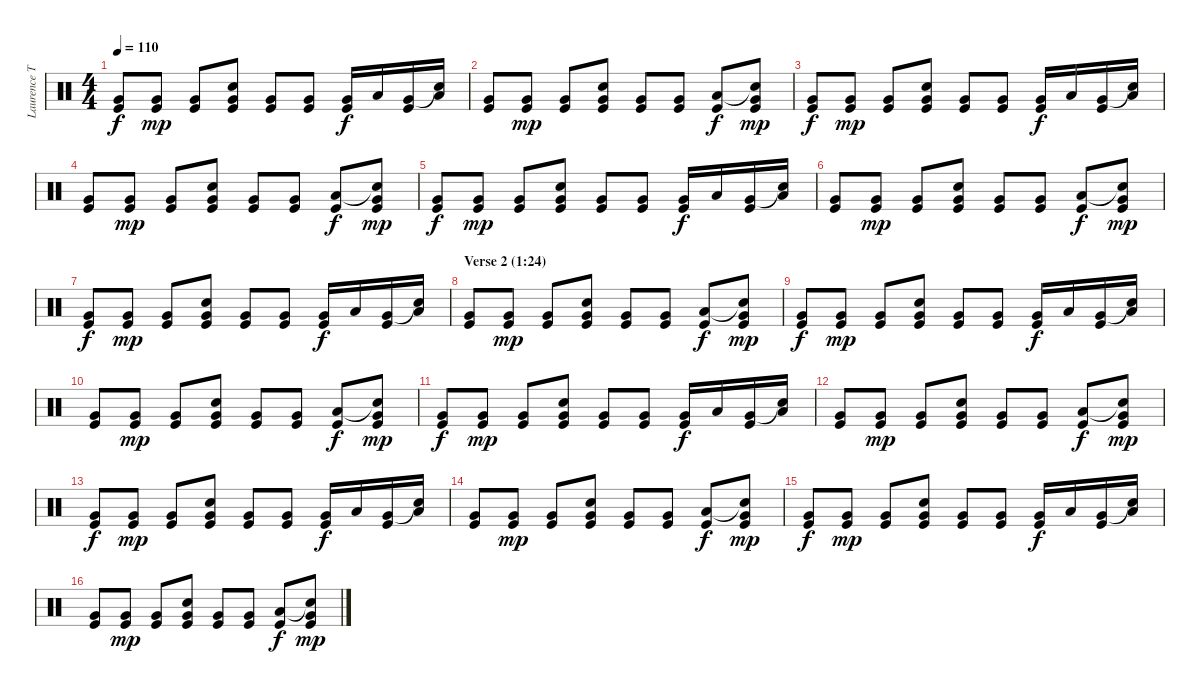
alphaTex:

\track ("Laurence Tolhurst (drums)" "Laurence T") {instrument percussion}
\staff {score}
\articulation defaults
\ts (4 4)
\tempo 110
\clef neutral
\ks c
("Very Low Tom (hit)" "Kick (hit)").8{dy f} ("Very Low Tom (hit)" "Kick (hit)").8{dy mp} ("Very Low Tom (hit)" "Kick (hit)").8 ("Snare (hit) 2" "Very Low Tom (hit)" "Kick (hit)").8 ("Very Low Tom (hit)" "Kick (hit)").8 ("Very Low Tom (hit)" "Kick (hit)").8 ("Very Low Tom (hit)" "Kick (hit)").16{dy f} "Low Tom (hit)".16 ("Very Low Tom (hit)" "Kick (hit)").16 ("Snare (hit)"{t} "Low Tom (hit)").16 |
("Very Low Tom (hit)" "Kick (hit)").8 ("Very Low Tom (hit)" "Kick (hit)").8{dy mp} ("Very Low Tom (hit)" "Kick (hit)").8 ("Snare (hit) 2" "Very Low Tom (hit)" "Kick (hit)").8 ("Very Low Tom (hit)" "Kick (hit)").8 ("Very Low Tom (hit)" "Kick (hit)").8 ("Low Tom (hit)" "Kick (hit)").8{dy f} ("Snare (hit)"{t} "Very Low Tom (hit)" "Kick (hit)").8{dy mp} |
("Very Low Tom (hit)" "Kick (hit)").8{dy f} ("Very Low Tom (hit)" "Kick (hit)").8{dy mp} ("Very Low Tom (hit)" "Kick (hit)").8 ("Snare (hit) 2" "Very Low Tom (hit)" "Kick (hit)").8 ("Very Low Tom (hit)" "Kick (hit)").8 ("Very Low Tom (hit)" "Kick (hit)").8 ("Very Low Tom (hit)" "Kick (hit)").16{dy f} "Low Tom (hit)".16 ("Very Low Tom (hit)" "Kick (hit)").16 ("Snare (hit)"{t} "Low Tom (hit)").16 |
("Very Low Tom (hit)" "Kick (hit)").8 ("Very Low Tom (hit)" "Kick (hit)").8{dy mp} ("Very Low Tom (hit)" "Kick (hit)").8 ("Snare (hit) 2" "Very Low Tom (hit)" "Kick (hit)").8 ("Very Low Tom (hit)" "Kick (hit)").8 ("Very Low Tom (hit)" "Kick (hit)").8 ("Low Tom (hit)" "Kick (hit)").8{dy f} ("Snare (hit)"{t} "Very Low Tom (hit)" "Kick (hit)").8{dy mp} |
("Very Low Tom (hit)" "Kick (hit)").8{dy f} ("Very Low Tom (hit)" "Kick (hit)").8{dy mp} ("Very Low Tom (hit)" "Kick (hit)").8 ("Snare (hit) 2" "Very Low Tom (hit)" "Kick (hit)").8 ("Very Low Tom (hit)" "Kick (hit)").8 ("Very Low Tom (hit)" "Kick (hit)").8 ("Very Low Tom (hit)" "Kick (hit)").16{dy f} "Low Tom (hit)".16 ("Very Low Tom (hit)" "Kick (hit)").16 ("Snare (hit)"{t} "Low Tom (hit)").16 |
("Very Low Tom (hit)" "Kick (hit)").8 ("Very Low Tom (hit)" "Kick (hit)").8{dy mp} ("Very Low Tom (hit)" "Kick (hit)").8 ("Snare (hit) 2" "Very Low Tom (hit)" "Kick (hit)").8 ("Very Low Tom (hit)" "Kick (hit)").8 ("Very Low Tom (hit)" "Kick (hit)").8 ("Low Tom (hit)" "Kick (hit)").8{dy f} ("Snare (hit)"{t} "Very Low Tom (hit)" "Kick (hit)").8{dy mp} |
("Very Low Tom (hit)" "Kick (hit)").8{dy f} ("Very Low Tom (hit)" "Kick (hit)").8{dy mp} ("Very Low Tom (hit)" "Kick (hit)").8 ("Snare (hit) 2" "Very Low Tom (hit)" "Kick (hit)").8 ("Very Low Tom (hit)" "Kick (hit)").8 ("Very Low Tom (hit)" "Kick (hit)").8 ("Very Low Tom (hit)" "Kick (hit)").16{dy f} "Low Tom (hit)".16 ("Very Low Tom (hit)" "Kick (hit)").16 ("Snare (hit)"{t} "Low Tom (hit)").16 |
\section ("" "Verse 2 (1:24)")
("Very Low Tom (hit)" "Kick (hit)").8 ("Very Low Tom (hit)" "Kick (hit)").8{dy mp} ("Very Low Tom (hit)" "Kick (hit)").8 ("Snare (hit) 2" "Very Low Tom (hit)" "Kick (hit)").8 ("Very Low Tom (hit)" "Kick (hit)").8 ("Very Low Tom (hit)" "Kick (hit)").8 ("Low Tom (hit)" "Kick (hit)").8{dy f} ("Snare (hit)"{t} "Very Low Tom (hit)" "Kick (hit)").8{dy mp} |
("Very Low Tom (hit)" "Kick (hit)").8{dy f} ("Very Low Tom (hit)" "Kick (hit)").8{dy mp} ("Very Low Tom (hit)" "Kick (hit)").8 ("Snare (hit) 2" "Very Low Tom (hit)" "Kick (hit)").8 ("Very Low Tom (hit)" "Kick (hit)").8 ("Very Low Tom (hit)" "Kick (hit)").8 ("Very Low Tom (hit)" "Kick (hit)").16{dy f} "Low Tom (hit)".16 ("Very Low Tom (hit)" "Kick (hit)").16 ("Snare (hit)"{t} "Low Tom (hit)").16 |
("Very Low Tom (hit)" "Kick (hit)").8 ("Very Low Tom (hit)" "Kick (hit)").8{dy mp} ("Very Low Tom (hit)" "Kick (hit)").8 ("Snare (hit) 2" "Very Low Tom (hit)" "Kick (hit)").8 ("Very Low Tom (hit)" "Kick (hit)").8 ("Very Low Tom (hit)" "Kick (hit)").8 ("Low Tom (hit)" "Kick (hit)").8{dy f} ("Snare (hit)"{t} "Very Low Tom (hit)" "Kick (hit)").8{dy mp} |
("Very Low Tom (hit)" "Kick (hit)").8{dy f} ("Very Low Tom (hit)" "Kick (hit)").8{dy mp} ("Very Low Tom (hit)" "Kick (hit)").8 ("Snare (hit) 2" "Very Low Tom (hit)" "Kick (hit)").8 ("Very Low Tom (hit)" "Kick (hit)").8 ("Very Low Tom (hit)" "Kick (hit)").8 ("Very Low Tom (hit)" "Kick (hit)").16{dy f} "Low Tom (hit)".16 ("Very Low Tom (hit)" "Kick (hit)").16 ("Snare (hit)"{t} "Low Tom (hit)").16 |
("Very Low Tom (hit)" "Kick (hit)").8 ("Very Low Tom (hit)" "Kick (hit)").8{dy mp} ("Very Low Tom (hit)" "Kick (hit)").8 ("Snare (hit) 2" "Very Low Tom (hit)" "Kick (hit)").8 ("Very Low Tom (hit)" "Kick (hit)").8 ("Very Low Tom (hit)" "Kick (hit)").8 ("Low Tom (hit)" "Kick (hit)").8{dy f} ("Snare (hit)"{t} "Very Low Tom (hit)" "Kick (hit)").8{dy mp} |
("Very Low Tom (hit)" "Kick (hit)").8{dy f} ("Very Low Tom (hit)" "Kick (hit)").8{dy mp} ("Very Low Tom (hit)" "Kick (hit)").8 ("Snare (hit) 2" "Very Low Tom (hit)" "Kick (hit)").8 ("Very Low Tom (hit)" "Kick (hit)").8 ("Very Low Tom (hit)" "Kick (hit)").8 ("Very Low Tom (hit)" "Kick (hit)").16{dy f} "Low Tom (hit)".16 ("Very Low Tom (hit)" "Kick (hit)").16 ("Snare (hit)"{t} "Low Tom (hit)").16 |
("Very Low Tom (hit)" "Kick (hit)").8 ("Very Low Tom (hit)" "Kick (hit)").8{dy mp} ("Very Low Tom (hit)" "Kick (hit)").8 ("Snare (hit) 2" "Very Low Tom (hit)" "Kick (hit)").8 ("Very Low Tom (hit)" "Kick (hit)").8 ("Very Low Tom (hit)" "Kick (hit)").8 ("Low Tom (hit)" "Kick (hit)").8{dy f} ("Snare (hit)"{t} "Very Low Tom (hit)" "Kick (hit)").8{dy mp} |
("Very Low Tom (hit)" "Kick (hit)").8{dy f} ("Very Low Tom (hit)" "Kick (hit)").8{dy mp} ("Very Low Tom (hit)" "Kick (hit)").8 ("Snare (hit) 2" "Very Low Tom (hit)" "Kick (hit)").8 ("Very Low Tom (hit)" "Kick (hit)").8 ("Very Low Tom (hit)" "Kick (hit)").8 ("Very Low Tom (hit)" "Kick (hit)").16{dy f} "Low Tom (hit)".16 ("Very Low Tom (hit)" "Kick (hit)").16 ("Snare (hit)"{t} "Low Tom (hit)").16 |
("Very Low Tom (hit)" "Kick (hit)").8 ("Very Low Tom (hit)" "Kick (hit)").8{dy mp} ("Very Low Tom (hit)" "Kick (hit)").8 ("Snare (hit) 2" "Very Low Tom (hit)" "Kick (hit)").8 ("Very Low Tom (hit)" "Kick (hit)").8 ("Very Low Tom (hit)" "Kick (hit)").8 ("Low Tom (hit)" "Kick (hit)").8{dy f} ("Snare (hit)"{t} "Very Low Tom (hit)" "Kick (hit)").8{dy mp}
